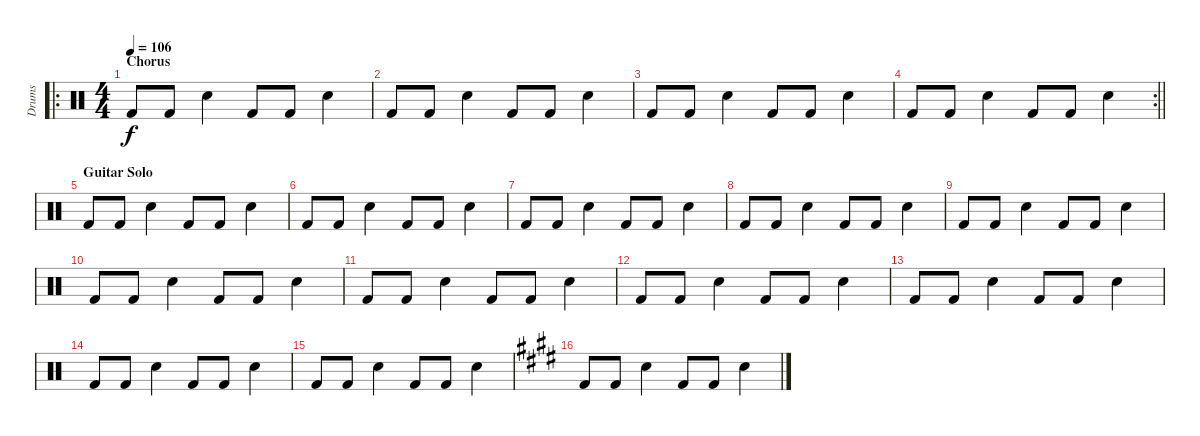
\track ("Drums" "Drums") {instrument percussion}
\staff {score}
\articulation defaults
\ro
\ts (4 4)
\section ("" "Chorus")
\tempo 106
\clef neutral
\ks c "Kick (hit) 2".8{dy f} "Kick (hit) 2".8 "Snare (hit) 2".4 "Kick (hit) 2".8 "Kick (hit) 2".8 "Snare (hit) 2".4
|
"Kick (hit) 2".8 "Kick (hit) 2".8 "Snare (hit) 2".4 "Kick (hit) 2".8 "Kick (hit) 2".8 "Snare (hit) 2".4 |
"Kick (hit) 2".8 "Kick (hit) 2".8 "Snare (hit) 2".4 "Kick (hit) 2".8 "Kick (hit) 2".8 "Snare (hit) 2".4 |
\rc 2
\barLineRight lightlight "Kick (hit) 2".8 "Kick (hit) 2".8 "Snare (hit) 2".4 "Kick (hit) 2".8 "Kick (hit) 2".8 "Snare (hit) 2".4
|
\section ("" "Guitar Solo")
"Kick (hit) 2".8 "Kick (hit) 2".8 "Snare (hit) 2".4 "Kick (hit) 2".8 "Kick (hit) 2".8 "Snare (hit) 2".4 |
"Kick (hit) 2".8 "Kick (hit) 2".8 "Snare (hit) 2".4 "Kick (hit) 2".8 "Kick (hit) 2".8 "Snare (hit) 2".4 |
"Kick (hit) 2".8 "Kick (hit) 2".8 "Snare (hit) 2".4 "Kick (hit) 2".8 "Kick (hit) 2".8 "Snare (hit) 2".4 |
"Kick (hit) 2".8 "Kick (hit) 2".8 "Snare (hit) 2".4 "Kick (hit) 2".8 "Kick (hit) 2".8 "Snare (hit) 2".4 |
"Kick (hit) 2".8 "Kick (hit) 2".8 "Snare (hit) 2".4 "Kick (hit) 2".8 "Kick (hit) 2".8 "Snare (hit) 2".4 |
"Kick (hit) 2".8 "Kick (hit) 2".8 "Snare (hit) 2".4 "Kick (hit) 2".8 "Kick (hit) 2".8 "Snare (hit) 2".4 |
"Kick (hit) 2".8 "Kick (hit) 2".8 "Snare (hit) 2".4 "Kick (hit) 2".8 "Kick (hit) 2".8 "Snare (hit) 2".4 |
"Kick (hit) 2".8 "Kick (hit) 2".8 "Snare (hit) 2".4 "Kick (hit) 2".8 "Kick (hit) 2".8 "Snare (hit) 2".4 |
"Kick (hit) 2".8 "Kick (hit) 2".8 "Snare (hit) 2".4 "Kick (hit) 2".8 "Kick (hit) 2".8 "Snare (hit) 2".4 |
"Kick (hit) 2".8 "Kick (hit) 2".8 "Snare (hit) 2".4 "Kick (hit) 2".8 "Kick (hit) 2".8 "Snare (hit) 2".4 |
"Kick (hit) 2".8 "Kick (hit) 2".8 "Snare (hit) 2".4 "Kick (hit) 2".8 "Kick (hit) 2".8 "Snare (hit) 2".4 |
\ks e "Kick (hit) 2".8 "Kick (hit) 2".8 "Snare (hit) 2".4 "Kick (hit) 2".8 "Kick (hit) 2".8 "Snare (hit) 2".4
